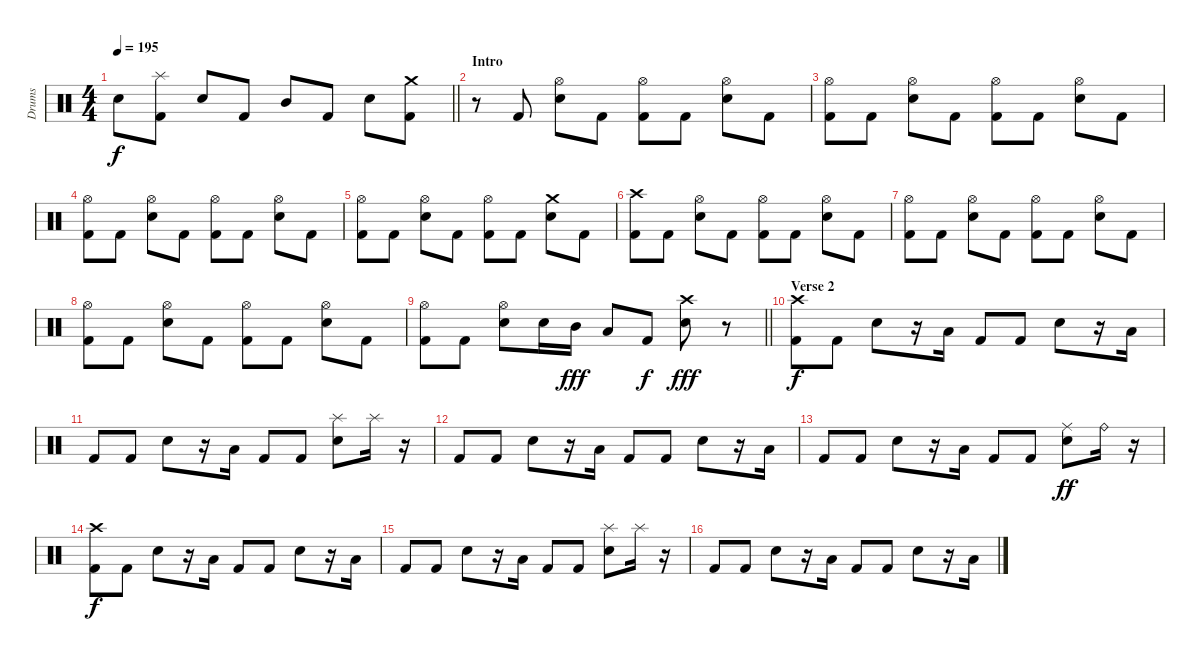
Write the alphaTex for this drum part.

\track ("Drums" "Drums") {instrument percussion}
\staff {score}
\articulation defaults
\ts (4 4)
\tempo 195
\clef neutral
\barLineRight lightlight
\ks c "Electric Snare (hit)".8{dy f}
("Splash (hit)" "Kick (hit) 2").8 "Electric Snare (hit)".8 "Kick (hit) 2".8 "Mid Tom (hit)".8 "Kick (hit) 2".8 "Electric Snare (hit)".8 ("Crash medium (hit)" "Kick (hit) 2").8 |
\section ("" "Intro")
r.8 "Kick (hit) 2".8 ("Hi-Hat (open)" "Electric Snare (hit)").8 "Kick (hit) 2".8 ("Hi-Hat (open)" "Kick (hit) 2").8 "Kick (hit) 2".8 ("Hi-Hat (open)" "Electric Snare (hit)").8 "Kick (hit) 2".8 |
("Hi-Hat (open)" "Kick (hit) 2").8 "Kick (hit) 2".8 ("Hi-Hat (open)" "Electric Snare (hit)").8 "Kick (hit) 2".8 ("Hi-Hat (open)" "Kick (hit) 2").8 "Kick (hit) 2".8 ("Hi-Hat (open)" "Electric Snare (hit)").8 "Kick (hit) 2".8 |
("Hi-Hat (open)" "Kick (hit) 2").8 "Kick (hit) 2".8 ("Hi-Hat (open)" "Electric Snare (hit)").8 "Kick (hit) 2".8 ("Hi-Hat (open)" "Kick (hit) 2").8 "Kick (hit) 2".8 ("Hi-Hat (open)" "Electric Snare (hit)").8 "Kick (hit) 2".8 |
("Hi-Hat (open)" "Kick (hit) 2").8 "Kick (hit) 2".8 ("Hi-Hat (open)" "Electric Snare (hit)").8 "Kick (hit) 2".8 ("Hi-Hat (open)" "Kick (hit) 2").8 "Kick (hit) 2".8 ("Crash medium (hit)" "Electric Snare (hit)").8 "Kick (hit) 2".8 |
("Crash high (hit)" "Kick (hit) 2").8 "Kick (hit) 2".8 ("Hi-Hat (open)" "Electric Snare (hit)").8 "Kick (hit) 2".8 ("Hi-Hat (open)" "Kick (hit) 2").8 "Kick (hit) 2".8 ("Hi-Hat (open)" "Electric Snare (hit)").8 "Kick (hit) 2".8 |
("Hi-Hat (open)" "Kick (hit) 2").8 "Kick (hit) 2".8 ("Hi-Hat (open)" "Electric Snare (hit)").8 "Kick (hit) 2".8 ("Hi-Hat (open)" "Kick (hit) 2").8 "Kick (hit) 2".8 ("Hi-Hat (open)" "Electric Snare (hit)").8 "Kick (hit) 2".8 |
("Hi-Hat (open)" "Kick (hit) 2").8 "Kick (hit) 2".8 ("Hi-Hat (open)" "Electric Snare (hit)").8 "Kick (hit) 2".8 ("Hi-Hat (open)" "Kick (hit) 2").8 "Kick (hit) 2".8 ("Hi-Hat (open)" "Electric Snare (hit)").8 "Kick (hit) 2".8 |
\barLineRight lightlight
("Hi-Hat (open)" "Kick (hit) 2").8 "Kick (hit) 2".8 ("Hi-Hat (open)" "Electric Snare (hit)").8 "Electric Snare (hit)".16 "Mid Tom (hit)".16{dy fff} "Low Tom (hit)".8 "Kick (hit) 2".8{dy f} ("Crash high (hit)" "Electric Snare (hit)").8{dy fff} r.8 |
\section ("" "Verse 2")
("Crash high (hit)" "Kick (hit) 2").8{dy f} "Kick (hit) 2".8 "Electric Snare (hit)".8 r.16 "Low Tom (hit)".16 "Kick (hit) 2".8 "Kick (hit) 2".8 "Electric Snare (hit)".8 r.16 "Low Tom (hit)".16 |
"Kick (hit) 2".8 "Kick (hit) 2".8 "Electric Snare (hit)".8 r.16 "Low Tom (hit)".16 "Kick (hit) 2".8 "Kick (hit) 2".8 ("Splash (hit)" "Electric Snare (hit)").8 "Splash (hit)".16 r.16 |
"Kick (hit) 2".8 "Kick (hit) 2".8 "Electric Snare (hit)".8 r.16 "Low Tom (hit)".16 "Kick (hit) 2".8 "Kick (hit) 2".8 "Electric Snare (hit)".8 r.16 "Low Tom (hit)".16 |
"Kick (hit) 2".8 "Kick (hit) 2".8 "Electric Snare (hit)".8 r.16 "Low Tom (hit)".16 "Kick (hit) 2".8 "Kick (hit) 2".8 ("Ride (middle)" "Electric Snare (hit)").8{dy ff} "Ride (bell)".16 r.16 |
("Crash high (hit)" "Kick (hit) 2").8{dy f} "Kick (hit) 2".8 "Electric Snare (hit)".8 r.16 "Low Tom (hit)".16 "Kick (hit) 2".8 "Kick (hit) 2".8 "Electric Snare (hit)".8 r.16 "Low Tom (hit)".16 |
"Kick (hit) 2".8 "Kick (hit) 2".8 "Electric Snare (hit)".8 r.16 "Low Tom (hit)".16 "Kick (hit) 2".8 "Kick (hit) 2".8 ("Splash (hit)" "Electric Snare (hit)").8 "Splash (hit)".16 r.16 |
"Kick (hit) 2".8 "Kick (hit) 2".8 "Electric Snare (hit)".8 r.16 "Low Tom (hit)".16 "Kick (hit) 2".8 "Kick (hit) 2".8 "Electric Snare (hit)".8 r.16 "Low Tom (hit)".16
